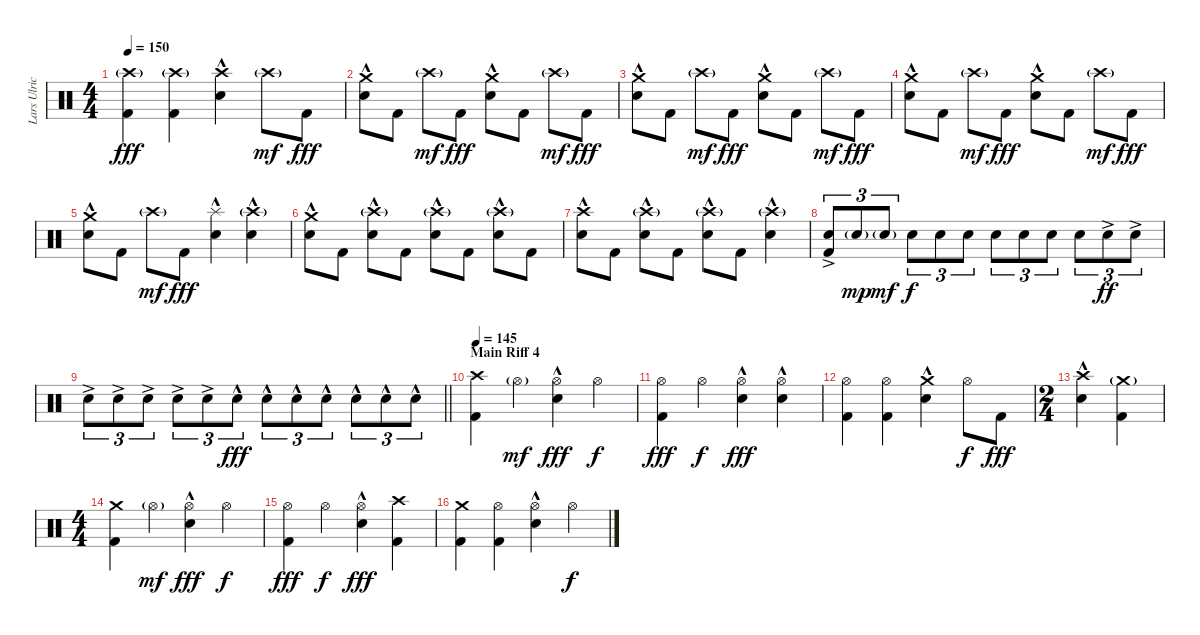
\track ("Lars Ulrich (Drums)" "Lars Ulric") {instrument percussion}
\staff {score}
\articulation defaults
\ts (4 4)
\tempo 150
\clef neutral
\ks c
("Crash high (hit)"{g} "Kick (hit) 2").4{dy fff} ("Crash high (hit)"{g} "Kick (hit) 2").4 ("Crash high (hit)" "Electric Snare (hit)"{hac}).4 "Crash high (hit)"{g}.8{dy mf} "Kick (hit) 2".8{dy fff} |
("Crash medium (hit)" "Electric Snare (hit)"{hac}).8 "Kick (hit) 2".8 "Crash high (hit)"{g}.8{dy mf} "Kick (hit) 2".8{dy fff} ("Crash medium (hit)" "Electric Snare (hit)"{hac}).8 "Kick (hit) 2".8 "Crash high (hit)"{g}.8{dy mf} "Kick (hit) 2".8{dy fff} |
("Crash medium (hit)" "Electric Snare (hit)"{hac}).8 "Kick (hit) 2".8 "Crash high (hit)"{g}.8{dy mf} "Kick (hit) 2".8{dy fff} ("Crash medium (hit)" "Electric Snare (hit)"{hac}).8 "Kick (hit) 2".8 "Crash high (hit)"{g}.8{dy mf} "Kick (hit) 2".8{dy fff} |
("Crash medium (hit)" "Electric Snare (hit)"{hac}).8 "Kick (hit) 2".8 "Crash high (hit)"{g}.8{dy mf} "Kick (hit) 2".8{dy fff} ("Crash medium (hit)" "Electric Snare (hit)"{hac}).8 "Kick (hit) 2".8 "Crash high (hit)"{g}.8{dy mf} "Kick (hit) 2".8{dy fff} |
("Crash medium (hit)" "Electric Snare (hit)"{hac}).8 "Kick (hit) 2".8 "Crash high (hit)"{g}.8{dy mf} "Kick (hit) 2".8{dy fff} ("Splash (hit)" "Electric Snare (hit)"{hac}).4 ("Crash high (hit)"{g} "Electric Snare (hit)"{hac}).4 |
("Crash medium (hit)" "Electric Snare (hit)"{hac}).8 "Kick (hit) 2".8 ("Crash high (hit)"{g} "Electric Snare (hit)"{hac}).8 "Kick (hit) 2".8 ("Crash high (hit)"{g} "Electric Snare (hit)"{hac}).8 "Kick (hit) 2".8 ("Crash high (hit)"{g} "Electric Snare (hit)"{hac}).8 "Kick (hit) 2".8 |
("Crash high (hit)" "Electric Snare (hit)"{hac}).8 "Kick (hit) 2".8 ("Crash high (hit)"{g} "Electric Snare (hit)"{hac}).8 "Kick (hit) 2".8 ("Crash high (hit)"{g} "Electric Snare (hit)"{hac}).8 "Kick (hit) 2".8 ("Crash high (hit)"{g} "Electric Snare (hit)"{hac}).4 |
("Electric Snare (hit)"{ac} "Kick (hit) 2").8{tu (3 2)} "Electric Snare (hit)"{g}.8{tu (3 2) dy mp} "Electric Snare (hit)"{g}.8{tu (3 2) dy mf} "Electric Snare (hit)".8{tu (3 2) dy f} "Electric Snare (hit)".8{tu (3 2)} "Electric Snare (hit)".8{tu (3 2)} "Electric Snare (hit)".8{tu (3 2)} "Electric Snare (hit)".8{tu (3 2)} "Electric Snare (hit)".8{tu (3 2)} "Electric Snare (hit)".8{tu (3 2)} "Electric Snare (hit)"{ac}.8{tu (3 2) dy ff} "Electric Snare (hit)"{ac}.8{tu (3 2)} |
\barLineRight lightlight "Electric Snare (hit)"{ac}.8{tu (3 2)} "Electric Snare (hit)"{ac}.8{tu (3 2)} "Electric Snare (hit)"{ac}.8{tu (3 2)} "Electric Snare (hit)"{ac}.8{tu (3 2)} "Electric Snare (hit)"{ac}.8{tu (3 2)} "Electric Snare (hit)"{hac}.8{tu (3 2) dy fff} "Electric Snare (hit)"{hac}.8{tu (3 2)} "Electric Snare (hit)"{hac}.8{tu (3 2)} "Electric Snare (hit)"{hac}.8{tu (3 2)} "Electric Snare (hit)"{hac}.8{tu (3 2)} "Electric Snare (hit)"{hac}.8{tu (3 2)} "Electric Snare (hit)"{hac}.8{tu (3 2)}
|
\section ("" "Main Riff 4")
\tempo 145
("Crash high (hit)" "Kick (hit) 2").4 "Hi-Hat (open)"{g}.4{dy mf} ("Hi-Hat (open)"{hac} "Electric Snare (hit)"{hac}).4{dy fff} "Hi-Hat (open)".4{dy f} |
("Hi-Hat (open)" "Kick (hit) 2").4{dy fff} "Hi-Hat (open)".4{dy f} ("Hi-Hat (open)"{hac} "Electric Snare (hit)"{hac}).4{dy fff} ("Hi-Hat (open)"{hac} "Electric Snare (hit)").4 |
("Hi-Hat (open)" "Kick (hit) 2").4 ("Hi-Hat (open)" "Kick (hit) 2").4 ("Crash medium (hit)" "Electric Snare (hit)"{hac}).4 "Hi-Hat (open)".8{dy f} "Kick (hit) 2".8{dy fff} |
\ts (2 4)
("Crash high (hit)" "Electric Snare (hit)"{hac}).4 ("Crash medium (hit)"{g} "Kick (hit) 2").4 |
\ts (4 4)
("Crash medium (hit)" "Kick (hit) 2").4 "Hi-Hat (open)"{g}.4{dy mf} ("Hi-Hat (open)"{hac} "Electric Snare (hit)"{hac}).4{dy fff} "Hi-Hat (open)".4{dy f} |
("Hi-Hat (open)" "Kick (hit) 2").4{dy fff} "Hi-Hat (open)".4{dy f} ("Hi-Hat (open)"{hac} "Electric Snare (hit)"{hac}).4{dy fff} ("Crash high (hit)" "Kick (hit) 2").4 |
("Crash medium (hit)" "Kick (hit) 2").4 ("Hi-Hat (open)" "Kick (hit) 2").4 ("Hi-Hat (open)"{hac} "Electric Snare (hit)"{hac}).4 "Hi-Hat (open)".4{dy f}
